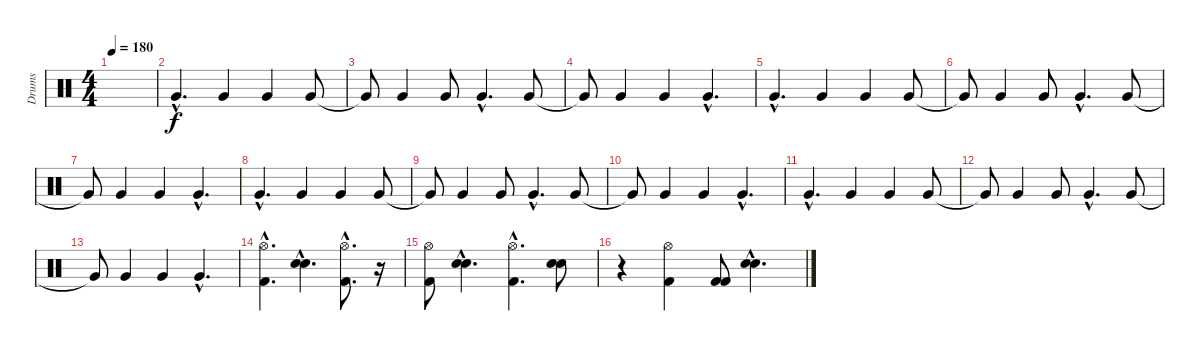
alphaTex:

\track ("Drums" "Drums") {instrument percussion}
\staff {score}
\articulation defaults
\ts (4 4)
\tempo 180
\clef neutral
\ks c
|
"Very Low Tom (hit)"{hac}.4{d} "Very Low Tom (hit)".4 "Very Low Tom (hit)".4 "Very Low Tom (hit)".8 |
"Very Low Tom (hit)"{t}.8 "Very Low Tom (hit)".4 "Very Low Tom (hit)".8 "Very Low Tom (hit)"{hac}.4{d} "Very Low Tom (hit)".8 |
"Very Low Tom (hit)"{t}.8 "Very Low Tom (hit)".4 "Very Low Tom (hit)".4 "Very Low Tom (hit)"{hac}.4{d} |
"Very Low Tom (hit)"{hac}.4{d} "Very Low Tom (hit)".4 "Very Low Tom (hit)".4 "Very Low Tom (hit)".8 |
"Very Low Tom (hit)"{t}.8 "Very Low Tom (hit)".4 "Very Low Tom (hit)".8 "Very Low Tom (hit)"{hac}.4{d} "Very Low Tom (hit)".8 |
"Very Low Tom (hit)"{t}.8 "Very Low Tom (hit)".4 "Very Low Tom (hit)".4 "Very Low Tom (hit)"{hac}.4{d} |
"Very Low Tom (hit)"{hac}.4{d} "Very Low Tom (hit)".4 "Very Low Tom (hit)".4 "Very Low Tom (hit)".8 |
"Very Low Tom (hit)"{t}.8 "Very Low Tom (hit)".4 "Very Low Tom (hit)".8 "Very Low Tom (hit)"{hac}.4{d} "Very Low Tom (hit)".8 |
"Very Low Tom (hit)"{t}.8 "Very Low Tom (hit)".4 "Very Low Tom (hit)".4 "Very Low Tom (hit)"{hac}.4{d} |
"Very Low Tom (hit)"{hac}.4{d} "Very Low Tom (hit)".4 "Very Low Tom (hit)".4 "Very Low Tom (hit)".8 |
"Very Low Tom (hit)"{t}.8 "Very Low Tom (hit)".4 "Very Low Tom (hit)".8 "Very Low Tom (hit)"{hac}.4{d} "Very Low Tom (hit)".8 |
"Very Low Tom (hit)"{t}.8 "Very Low Tom (hit)".4 "Very Low Tom (hit)".4 "Very Low Tom (hit)"{hac}.4{d} |
("Hi-Hat (open)"{hac} "Kick (hit) 2"{hac}).4{d} ("Snare (hit) 2"{hac} "Electric Snare (hit)"{hac}).4{d} ("Hi-Hat (open)"{hac} "Kick (hit) 2"{hac}).8{d} r.16 |
("Hi-Hat (open)" "Kick (hit) 2").8 ("Snare (hit) 2"{hac} "Electric Snare (hit)"{hac}).4{d} ("Hi-Hat (open)"{hac} "Kick (hit) 2"{hac}).4{d} ("Snare (hit) 2" "Electric Snare (hit)").8 |
r.4 ("Kick (hit) 2" "Hi-Hat (open)").4 ("Kick (hit) 2" "Kick (hit) 2").8 ("Electric Snare (hit)"{hac} "Snare (hit) 2"{hac}).4{d}
